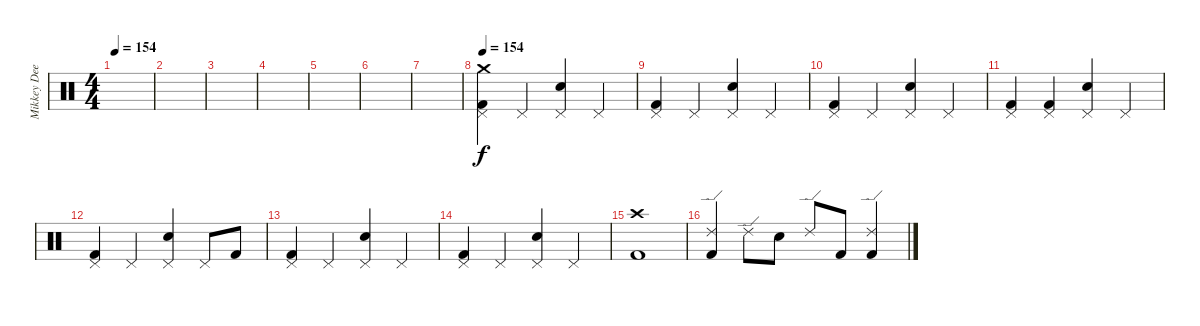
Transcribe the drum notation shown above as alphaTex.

\track ("Mikkey Dee" "Mikkey Dee") {instrument percussion}
\staff {score}
\articulation defaults
\ts (4 4)
\tempo 154
\clef neutral
\ks c
|
|
|
|
|
|
|
\tempo 154
("Kick (hit) 2" "Pedal Hi-Hat (hit)" "Crash medium (hit)").4 "Pedal Hi-Hat (hit)".4 ("Snare (hit) 2" "Pedal Hi-Hat (hit)").4 "Pedal Hi-Hat (hit)".4 |
("Kick (hit) 2" "Pedal Hi-Hat (hit)").4 "Pedal Hi-Hat (hit)".4 ("Snare (hit) 2" "Pedal Hi-Hat (hit)").4 "Pedal Hi-Hat (hit)".4 |
("Kick (hit) 2" "Pedal Hi-Hat (hit)").4 "Pedal Hi-Hat (hit)".4 ("Snare (hit) 2" "Pedal Hi-Hat (hit)").4 "Pedal Hi-Hat (hit)".4 |
("Kick (hit) 2" "Pedal Hi-Hat (hit)").4 ("Kick (hit) 2" "Pedal Hi-Hat (hit)").4 ("Snare (hit) 2" "Pedal Hi-Hat (hit)").4 "Pedal Hi-Hat (hit)".4 |
("Kick (hit) 2" "Pedal Hi-Hat (hit)").4 "Pedal Hi-Hat (hit)".4 ("Snare (hit) 2" "Pedal Hi-Hat (hit)").4 "Pedal Hi-Hat (hit)".8 "Kick (hit) 2".8 |
("Kick (hit) 2" "Pedal Hi-Hat (hit)").4 "Pedal Hi-Hat (hit)".4 ("Snare (hit) 2" "Pedal Hi-Hat (hit)").4 "Pedal Hi-Hat (hit)".4 |
("Kick (hit) 2" "Pedal Hi-Hat (hit)").4 "Pedal Hi-Hat (hit)".4 ("Snare (hit) 2" "Pedal Hi-Hat (hit)").4 "Pedal Hi-Hat (hit)".4 |
("Kick (hit) 2" "Crash high (hit)").1 |
("Kick (hit) 2" "Ride (edge) 2").4 "Ride (edge) 2".8 "Snare (hit) 2".8 "Ride (edge) 2".8 "Kick (hit) 2".8 ("Kick (hit) 2" "Ride (edge) 2").4
